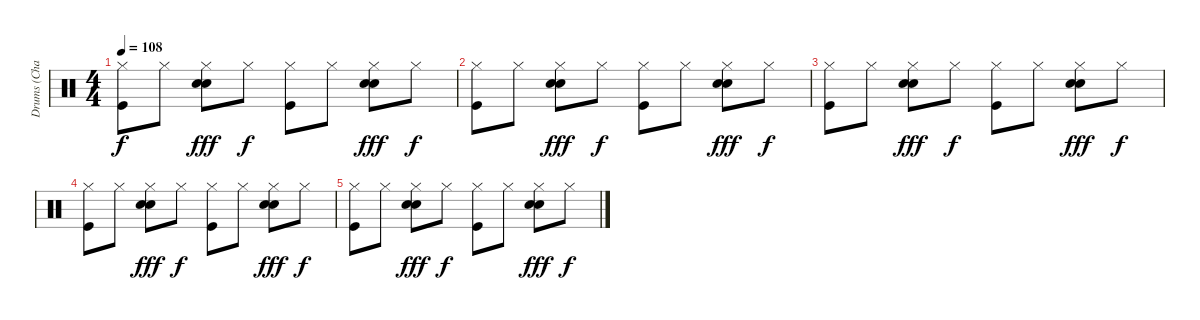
\track ("Drums (Charlie)" "Drums (Cha") {instrument percussion}
\staff {score}
\articulation defaults
\ts (4 4)
\tempo 108
\clef neutral
\ks c
("Hi-Hat (closed)" "Kick (hit)").8{dy f} "Hi-Hat (closed)".8 ("Hi-Hat (closed)" "Snare (hit) 2" "Electric Snare (hit)").8{dy fff} "Hi-Hat (closed)".8{dy f} ("Hi-Hat (closed)" "Kick (hit)").8 "Hi-Hat (closed)".8 ("Hi-Hat (closed)" "Snare (hit) 2" "Electric Snare (hit)").8{dy fff} "Hi-Hat (closed)".8{dy f} |
("Hi-Hat (closed)" "Kick (hit)").8{volume 2} "Hi-Hat (closed)".8 ("Hi-Hat (closed)" "Snare (hit) 2" "Electric Snare (hit)").8{dy fff} "Hi-Hat (closed)".8{dy f} ("Hi-Hat (closed)" "Kick (hit)").8 "Hi-Hat (closed)".8 ("Hi-Hat (closed)" "Snare (hit) 2" "Electric Snare (hit)").8{dy fff} "Hi-Hat (closed)".8{dy f} |
("Hi-Hat (closed)" "Kick (hit)").8 "Hi-Hat (closed)".8 ("Hi-Hat (closed)" "Snare (hit) 2" "Electric Snare (hit)").8{dy fff} "Hi-Hat (closed)".8{dy f} ("Hi-Hat (closed)" "Kick (hit)").8 "Hi-Hat (closed)".8 ("Hi-Hat (closed)" "Snare (hit) 2" "Electric Snare (hit)").8{dy fff} "Hi-Hat (closed)".8{dy f} |
("Hi-Hat (closed)" "Kick (hit)").8 "Hi-Hat (closed)".8 ("Hi-Hat (closed)" "Snare (hit) 2" "Electric Snare (hit)").8{dy fff} "Hi-Hat (closed)".8{dy f} ("Hi-Hat (closed)" "Kick (hit)").8 "Hi-Hat (closed)".8 ("Hi-Hat (closed)" "Snare (hit) 2" "Electric Snare (hit)").8{dy fff} "Hi-Hat (closed)".8{dy f} |
("Hi-Hat (closed)" "Kick (hit)").8 "Hi-Hat (closed)".8 ("Hi-Hat (closed)" "Snare (hit) 2" "Electric Snare (hit)").8{dy fff} "Hi-Hat (closed)".8{dy f} ("Hi-Hat (closed)" "Kick (hit)").8 "Hi-Hat (closed)".8 ("Hi-Hat (closed)" "Snare (hit) 2" "Electric Snare (hit)").8{dy fff} "Hi-Hat (closed)".8{dy f}
